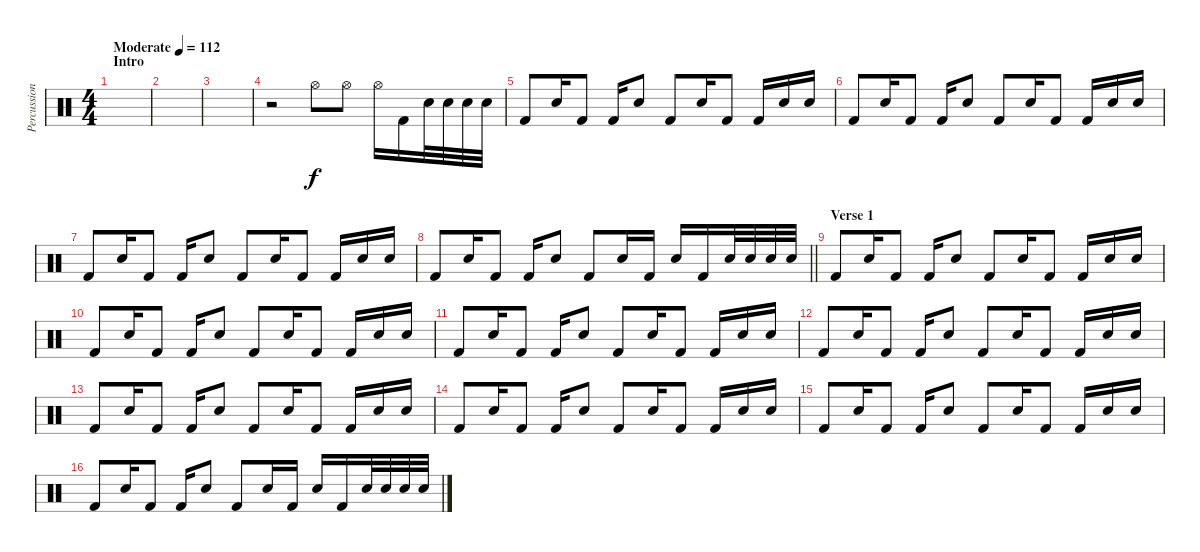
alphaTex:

\track ("Percussion" "Percussion") {instrument percussion}
\staff {score}
\articulation defaults
\ts (4 4)
\section ("" "Intro")
\tempo (112 "Moderate")
\clef neutral
\ks c
|
|
|
r.2 "Hi-Hat (open)".8 "Hi-Hat (open)".8 "Hi-Hat (open)".16 "Kick (hit) 2".16 "Snare (hit) 2".32 "Snare (hit) 2".32 "Snare (hit) 2".32 "Snare (hit) 2".32 |
"Kick (hit) 2".8 "Snare (hit) 2".16 "Kick (hit) 2".8 "Kick (hit) 2".16 "Snare (hit) 2".8 "Kick (hit) 2".8 "Snare (hit) 2".16 "Kick (hit) 2".8 "Kick (hit) 2".16 "Snare (hit) 2".16 "Snare (hit) 2".16 |
"Kick (hit) 2".8 "Snare (hit) 2".16 "Kick (hit) 2".8 "Kick (hit) 2".16 "Snare (hit) 2".8 "Kick (hit) 2".8 "Snare (hit) 2".16 "Kick (hit) 2".8 "Kick (hit) 2".16 "Snare (hit) 2".16 "Snare (hit) 2".16 |
"Kick (hit) 2".8 "Snare (hit) 2".16 "Kick (hit) 2".8 "Kick (hit) 2".16 "Snare (hit) 2".8 "Kick (hit) 2".8 "Snare (hit) 2".16 "Kick (hit) 2".8 "Kick (hit) 2".16 "Snare (hit) 2".16 "Snare (hit) 2".16 |
\barLineRight lightlight "Kick (hit) 2".8 "Snare (hit) 2".16 "Kick (hit) 2".8 "Kick (hit) 2".16 "Snare (hit) 2".8 "Kick (hit) 2".8 "Snare (hit) 2".16 "Kick (hit) 2".16 "Snare (hit) 2".16 "Kick (hit) 2".16 "Snare (hit) 2".32 "Snare (hit) 2".32 "Snare (hit) 2".32 "Snare (hit) 2".32
|
\section ("" "Verse 1")
"Kick (hit) 2".8 "Snare (hit) 2".16 "Kick (hit) 2".8 "Kick (hit) 2".16 "Snare (hit) 2".8 "Kick (hit) 2".8 "Snare (hit) 2".16 "Kick (hit) 2".8 "Kick (hit) 2".16 "Snare (hit) 2".16 "Snare (hit) 2".16 |
"Kick (hit) 2".8 "Snare (hit) 2".16 "Kick (hit) 2".8 "Kick (hit) 2".16 "Snare (hit) 2".8 "Kick (hit) 2".8 "Snare (hit) 2".16 "Kick (hit) 2".8 "Kick (hit) 2".16 "Snare (hit) 2".16 "Snare (hit) 2".16 |
"Kick (hit) 2".8 "Snare (hit) 2".16 "Kick (hit) 2".8 "Kick (hit) 2".16 "Snare (hit) 2".8 "Kick (hit) 2".8 "Snare (hit) 2".16 "Kick (hit) 2".8 "Kick (hit) 2".16 "Snare (hit) 2".16 "Snare (hit) 2".16 |
"Kick (hit) 2".8 "Snare (hit) 2".16 "Kick (hit) 2".8 "Kick (hit) 2".16 "Snare (hit) 2".8 "Kick (hit) 2".8 "Snare (hit) 2".16 "Kick (hit) 2".8 "Kick (hit) 2".16 "Snare (hit) 2".16 "Snare (hit) 2".16 |
"Kick (hit) 2".8 "Snare (hit) 2".16 "Kick (hit) 2".8 "Kick (hit) 2".16 "Snare (hit) 2".8 "Kick (hit) 2".8 "Snare (hit) 2".16 "Kick (hit) 2".8 "Kick (hit) 2".16 "Snare (hit) 2".16 "Snare (hit) 2".16 |
"Kick (hit) 2".8 "Snare (hit) 2".16 "Kick (hit) 2".8 "Kick (hit) 2".16 "Snare (hit) 2".8 "Kick (hit) 2".8 "Snare (hit) 2".16 "Kick (hit) 2".8 "Kick (hit) 2".16 "Snare (hit) 2".16 "Snare (hit) 2".16 |
"Kick (hit) 2".8 "Snare (hit) 2".16 "Kick (hit) 2".8 "Kick (hit) 2".16 "Snare (hit) 2".8 "Kick (hit) 2".8 "Snare (hit) 2".16 "Kick (hit) 2".8 "Kick (hit) 2".16 "Snare (hit) 2".16 "Snare (hit) 2".16 |
"Kick (hit) 2".8 "Snare (hit) 2".16 "Kick (hit) 2".8 "Kick (hit) 2".16 "Snare (hit) 2".8 "Kick (hit) 2".8 "Snare (hit) 2".16 "Kick (hit) 2".16 "Snare (hit) 2".16 "Kick (hit) 2".16 "Snare (hit) 2".32 "Snare (hit) 2".32 "Snare (hit) 2".32 "Snare (hit) 2".32
